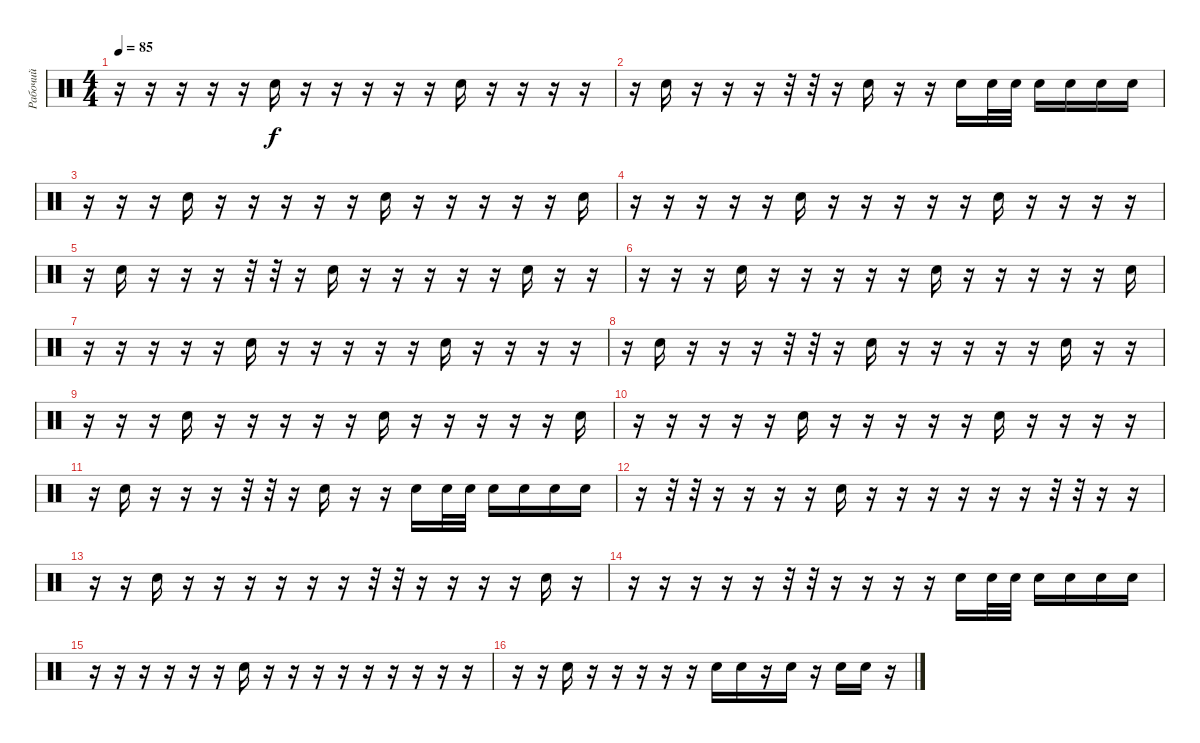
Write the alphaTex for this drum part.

\track ("Рабочий" "Рабочий") {instrument percussion}
\staff {score}
\articulation defaults
\ts (4 4)
\tempo 85
\clef neutral
\ks c
r.16{dy f} r.16 r.16 r.16 r.16 "Snare (hit) 2".16 r.16 r.16 r.16 r.16 r.16 "Snare (hit) 2".16 r.16 r.16 r.16 r.16 |
r.16 "Snare (hit) 2".16 r.16 r.16 r.16 r.32 r.32 r.16 "Snare (hit) 2".16 r.16 r.16 "Snare (hit) 2".16 "Snare (hit) 2".32 "Snare (hit) 2".32 "Snare (hit) 2".16 "Snare (hit) 2".16 "Snare (hit) 2".16 "Snare (hit) 2".16 |
r.16 r.16 r.16 "Snare (hit) 2".16 r.16 r.16 r.16 r.16 r.16 "Snare (hit) 2".16 r.16 r.16 r.16 r.16 r.16 "Snare (hit) 2".16 |
r.16 r.16 r.16 r.16 r.16 "Snare (hit) 2".16 r.16 r.16 r.16 r.16 r.16 "Snare (hit) 2".16 r.16 r.16 r.16 r.16 |
r.16 "Snare (hit) 2".16 r.16 r.16 r.16 r.32 r.32 r.16 "Snare (hit) 2".16 r.16 r.16 r.16 r.16 r.16 "Snare (hit) 2".16 r.16 r.16 |
r.16 r.16 r.16 "Snare (hit) 2".16 r.16 r.16 r.16 r.16 r.16 "Snare (hit) 2".16 r.16 r.16 r.16 r.16 r.16 "Snare (hit) 2".16 |
r.16 r.16 r.16 r.16 r.16 "Snare (hit) 2".16 r.16 r.16 r.16 r.16 r.16 "Snare (hit) 2".16 r.16 r.16 r.16 r.16 |
r.16 "Snare (hit) 2".16 r.16 r.16 r.16 r.32 r.32 r.16 "Snare (hit) 2".16 r.16 r.16 r.16 r.16 r.16 "Snare (hit) 2".16 r.16 r.16 |
r.16 r.16 r.16 "Snare (hit) 2".16 r.16 r.16 r.16 r.16 r.16 "Snare (hit) 2".16 r.16 r.16 r.16 r.16 r.16 "Snare (hit) 2".16 |
r.16 r.16 r.16 r.16 r.16 "Snare (hit) 2".16 r.16 r.16 r.16 r.16 r.16 "Snare (hit) 2".16 r.16 r.16 r.16 r.16 |
r.16 "Snare (hit) 2".16 r.16 r.16 r.16 r.32 r.32 r.16 "Snare (hit) 2".16 r.16 r.16 "Snare (hit) 2".16 "Snare (hit) 2".32 "Snare (hit) 2".32 "Snare (hit) 2".16 "Snare (hit) 2".16 "Snare (hit) 2".16 "Snare (hit) 2".16 |
r.16 r.32 r.32 r.16 r.16 r.16 r.16 "Snare (hit) 2".16 r.16 r.16 r.16 r.16 r.16 r.16 r.32 r.32 r.16 r.16 |
r.16 r.16 "Snare (hit) 2".16 r.16 r.16 r.16 r.16 r.16 r.16 r.32 r.32 r.16 r.16 r.16 r.16 "Snare (hit) 2".16 r.16 |
r.16 r.16 r.16 r.16 r.16 r.32 r.32 r.16 r.16 r.16 r.16 "Snare (hit) 2".16 "Snare (hit) 2".32 "Snare (hit) 2".32 "Snare (hit) 2".16 "Snare (hit) 2".16 "Snare (hit) 2".16 "Snare (hit) 2".16 |
r.16 r.16 r.16 r.16 r.16 r.16 "Snare (hit) 2".16 r.16 r.16 r.16 r.16 r.16 r.16 r.16 r.16 r.16 |
r.16 r.16 "Snare (hit) 2".16 r.16 r.16 r.16 r.16 r.16 "Snare (hit) 2".16 "Snare (hit) 2".16 r.16 "Snare (hit) 2".16 r.16 "Snare (hit) 2".16 "Snare (hit) 2".16 r.16
